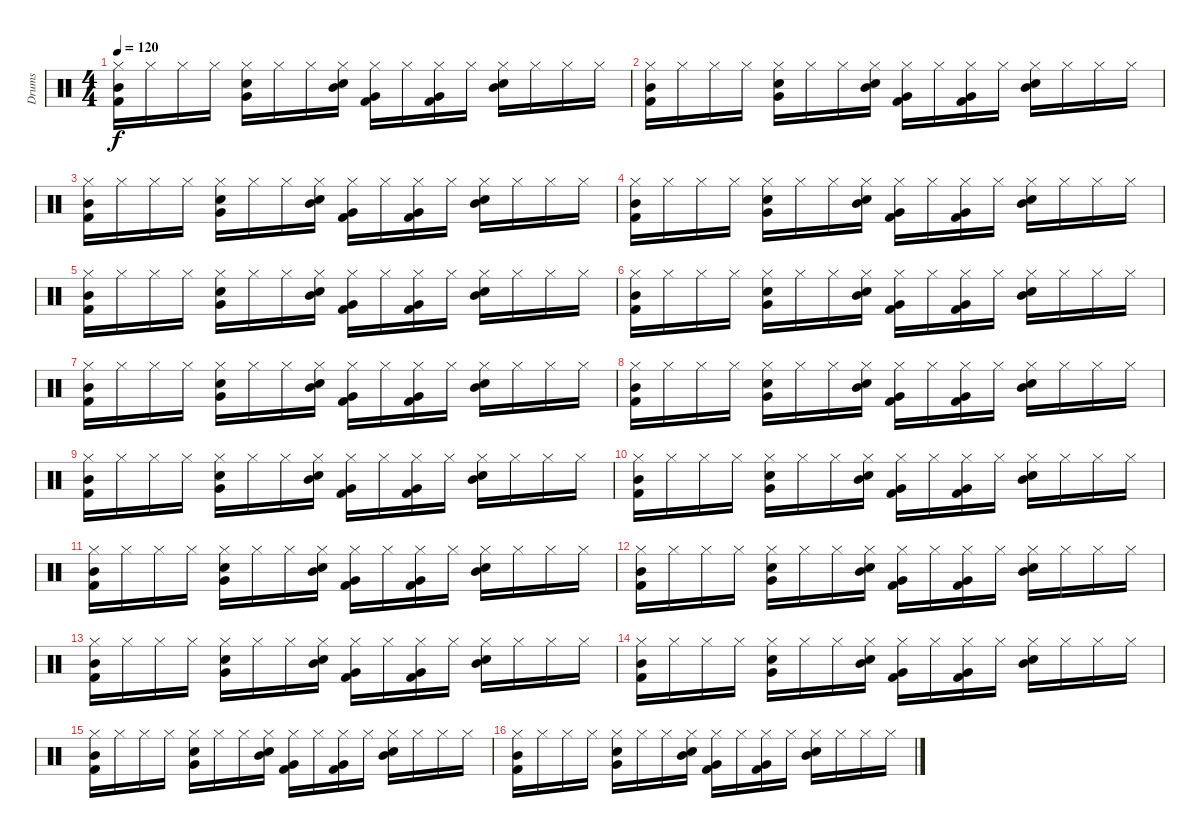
\track ("Drums" "Drums") {instrument percussion}
\staff {score}
\articulation defaults
\ts (4 4)
\tempo 120
\clef neutral
\ks c
("Hi-Hat (closed)" "Kick (hit) 2" "Mid Tom (hit)").16{dy f} "Hi-Hat (closed)".16 "Hi-Hat (closed)".16 "Hi-Hat (closed)".16 ("Hi-Hat (closed)" "Snare (hit) 2" "Very Low Tom (hit)").16 "Hi-Hat (closed)".16 "Hi-Hat (closed)".16 ("Hi-Hat (closed)" "Snare (hit) 2" "Mid Tom (hit)").16 ("Hi-Hat (closed)" "Kick (hit) 2" "Very Low Tom (hit)").16 "Hi-Hat (closed)".16 ("Hi-Hat (closed)" "Kick (hit) 2" "Very Low Tom (hit)").16 "Hi-Hat (closed)".16 ("Hi-Hat (closed)" "Snare (hit) 2" "Mid Tom (hit)").16 "Hi-Hat (closed)".16 "Hi-Hat (closed)".16 "Hi-Hat (closed)".16 |
("Hi-Hat (closed)" "Kick (hit) 2" "Mid Tom (hit)").16 "Hi-Hat (closed)".16 "Hi-Hat (closed)".16 "Hi-Hat (closed)".16 ("Hi-Hat (closed)" "Snare (hit) 2" "Very Low Tom (hit)").16 "Hi-Hat (closed)".16 "Hi-Hat (closed)".16 ("Hi-Hat (closed)" "Snare (hit) 2" "Mid Tom (hit)").16 ("Hi-Hat (closed)" "Kick (hit) 2" "Very Low Tom (hit)").16 "Hi-Hat (closed)".16 ("Hi-Hat (closed)" "Kick (hit) 2" "Very Low Tom (hit)").16 "Hi-Hat (closed)".16 ("Hi-Hat (closed)" "Snare (hit) 2" "Mid Tom (hit)").16 "Hi-Hat (closed)".16 "Hi-Hat (closed)".16 "Hi-Hat (closed)".16 |
("Hi-Hat (closed)" "Kick (hit) 2" "Mid Tom (hit)").16 "Hi-Hat (closed)".16 "Hi-Hat (closed)".16 "Hi-Hat (closed)".16 ("Hi-Hat (closed)" "Snare (hit) 2" "Very Low Tom (hit)").16 "Hi-Hat (closed)".16 "Hi-Hat (closed)".16 ("Hi-Hat (closed)" "Snare (hit) 2" "Mid Tom (hit)").16 ("Hi-Hat (closed)" "Kick (hit) 2" "Very Low Tom (hit)").16 "Hi-Hat (closed)".16 ("Hi-Hat (closed)" "Kick (hit) 2" "Very Low Tom (hit)").16 "Hi-Hat (closed)".16 ("Hi-Hat (closed)" "Snare (hit) 2" "Mid Tom (hit)").16 "Hi-Hat (closed)".16 "Hi-Hat (closed)".16 "Hi-Hat (closed)".16 |
("Hi-Hat (closed)" "Kick (hit) 2" "Mid Tom (hit)").16 "Hi-Hat (closed)".16 "Hi-Hat (closed)".16 "Hi-Hat (closed)".16 ("Hi-Hat (closed)" "Snare (hit) 2" "Very Low Tom (hit)").16 "Hi-Hat (closed)".16 "Hi-Hat (closed)".16 ("Hi-Hat (closed)" "Snare (hit) 2" "Mid Tom (hit)").16 ("Hi-Hat (closed)" "Kick (hit) 2" "Very Low Tom (hit)").16 "Hi-Hat (closed)".16 ("Hi-Hat (closed)" "Kick (hit) 2" "Very Low Tom (hit)").16 "Hi-Hat (closed)".16 ("Hi-Hat (closed)" "Snare (hit) 2" "Mid Tom (hit)").16 "Hi-Hat (closed)".16 "Hi-Hat (closed)".16 "Hi-Hat (closed)".16 |
("Hi-Hat (closed)" "Kick (hit) 2" "Mid Tom (hit)").16 "Hi-Hat (closed)".16 "Hi-Hat (closed)".16 "Hi-Hat (closed)".16 ("Hi-Hat (closed)" "Snare (hit) 2" "Very Low Tom (hit)").16 "Hi-Hat (closed)".16 "Hi-Hat (closed)".16 ("Hi-Hat (closed)" "Snare (hit) 2" "Mid Tom (hit)").16 ("Hi-Hat (closed)" "Kick (hit) 2" "Very Low Tom (hit)").16 "Hi-Hat (closed)".16 ("Hi-Hat (closed)" "Kick (hit) 2" "Very Low Tom (hit)").16 "Hi-Hat (closed)".16 ("Hi-Hat (closed)" "Snare (hit) 2" "Mid Tom (hit)").16 "Hi-Hat (closed)".16 "Hi-Hat (closed)".16 "Hi-Hat (closed)".16 |
("Hi-Hat (closed)" "Kick (hit) 2" "Mid Tom (hit)").16 "Hi-Hat (closed)".16 "Hi-Hat (closed)".16 "Hi-Hat (closed)".16 ("Hi-Hat (closed)" "Snare (hit) 2" "Very Low Tom (hit)").16 "Hi-Hat (closed)".16 "Hi-Hat (closed)".16 ("Hi-Hat (closed)" "Snare (hit) 2" "Mid Tom (hit)").16 ("Hi-Hat (closed)" "Kick (hit) 2" "Very Low Tom (hit)").16 "Hi-Hat (closed)".16 ("Hi-Hat (closed)" "Kick (hit) 2" "Very Low Tom (hit)").16 "Hi-Hat (closed)".16 ("Hi-Hat (closed)" "Snare (hit) 2" "Mid Tom (hit)").16 "Hi-Hat (closed)".16 "Hi-Hat (closed)".16 "Hi-Hat (closed)".16 |
("Hi-Hat (closed)" "Kick (hit) 2" "Mid Tom (hit)").16 "Hi-Hat (closed)".16 "Hi-Hat (closed)".16 "Hi-Hat (closed)".16 ("Hi-Hat (closed)" "Snare (hit) 2" "Very Low Tom (hit)").16 "Hi-Hat (closed)".16 "Hi-Hat (closed)".16 ("Hi-Hat (closed)" "Snare (hit) 2" "Mid Tom (hit)").16 ("Hi-Hat (closed)" "Kick (hit) 2" "Very Low Tom (hit)").16 "Hi-Hat (closed)".16 ("Hi-Hat (closed)" "Kick (hit) 2" "Very Low Tom (hit)").16 "Hi-Hat (closed)".16 ("Hi-Hat (closed)" "Snare (hit) 2" "Mid Tom (hit)").16 "Hi-Hat (closed)".16 "Hi-Hat (closed)".16 "Hi-Hat (closed)".16 |
("Hi-Hat (closed)" "Kick (hit) 2" "Mid Tom (hit)").16 "Hi-Hat (closed)".16 "Hi-Hat (closed)".16 "Hi-Hat (closed)".16 ("Hi-Hat (closed)" "Snare (hit) 2" "Very Low Tom (hit)").16 "Hi-Hat (closed)".16 "Hi-Hat (closed)".16 ("Hi-Hat (closed)" "Snare (hit) 2" "Mid Tom (hit)").16 ("Hi-Hat (closed)" "Kick (hit) 2" "Very Low Tom (hit)").16 "Hi-Hat (closed)".16 ("Hi-Hat (closed)" "Kick (hit) 2" "Very Low Tom (hit)").16 "Hi-Hat (closed)".16 ("Hi-Hat (closed)" "Snare (hit) 2" "Mid Tom (hit)").16 "Hi-Hat (closed)".16 "Hi-Hat (closed)".16 "Hi-Hat (closed)".16 |
("Hi-Hat (closed)" "Kick (hit) 2" "Mid Tom (hit)").16 "Hi-Hat (closed)".16 "Hi-Hat (closed)".16 "Hi-Hat (closed)".16 ("Hi-Hat (closed)" "Snare (hit) 2" "Very Low Tom (hit)").16 "Hi-Hat (closed)".16 "Hi-Hat (closed)".16 ("Hi-Hat (closed)" "Snare (hit) 2" "Mid Tom (hit)").16 ("Hi-Hat (closed)" "Kick (hit) 2" "Very Low Tom (hit)").16 "Hi-Hat (closed)".16 ("Hi-Hat (closed)" "Kick (hit) 2" "Very Low Tom (hit)").16 "Hi-Hat (closed)".16 ("Hi-Hat (closed)" "Snare (hit) 2" "Mid Tom (hit)").16 "Hi-Hat (closed)".16 "Hi-Hat (closed)".16 "Hi-Hat (closed)".16 |
("Hi-Hat (closed)" "Kick (hit) 2" "Mid Tom (hit)").16 "Hi-Hat (closed)".16 "Hi-Hat (closed)".16 "Hi-Hat (closed)".16 ("Hi-Hat (closed)" "Snare (hit) 2" "Very Low Tom (hit)").16 "Hi-Hat (closed)".16 "Hi-Hat (closed)".16 ("Hi-Hat (closed)" "Snare (hit) 2" "Mid Tom (hit)").16 ("Hi-Hat (closed)" "Kick (hit) 2" "Very Low Tom (hit)").16 "Hi-Hat (closed)".16 ("Hi-Hat (closed)" "Kick (hit) 2" "Very Low Tom (hit)").16 "Hi-Hat (closed)".16 ("Hi-Hat (closed)" "Snare (hit) 2" "Mid Tom (hit)").16 "Hi-Hat (closed)".16 "Hi-Hat (closed)".16 "Hi-Hat (closed)".16 |
("Hi-Hat (closed)" "Kick (hit) 2" "Mid Tom (hit)").16 "Hi-Hat (closed)".16 "Hi-Hat (closed)".16 "Hi-Hat (closed)".16 ("Hi-Hat (closed)" "Snare (hit) 2" "Very Low Tom (hit)").16 "Hi-Hat (closed)".16 "Hi-Hat (closed)".16 ("Hi-Hat (closed)" "Snare (hit) 2" "Mid Tom (hit)").16 ("Hi-Hat (closed)" "Kick (hit) 2" "Very Low Tom (hit)").16 "Hi-Hat (closed)".16 ("Hi-Hat (closed)" "Kick (hit) 2" "Very Low Tom (hit)").16 "Hi-Hat (closed)".16 ("Hi-Hat (closed)" "Snare (hit) 2" "Mid Tom (hit)").16 "Hi-Hat (closed)".16 "Hi-Hat (closed)".16 "Hi-Hat (closed)".16 |
("Hi-Hat (closed)" "Kick (hit) 2" "Mid Tom (hit)").16 "Hi-Hat (closed)".16 "Hi-Hat (closed)".16 "Hi-Hat (closed)".16 ("Hi-Hat (closed)" "Snare (hit) 2" "Very Low Tom (hit)").16 "Hi-Hat (closed)".16 "Hi-Hat (closed)".16 ("Hi-Hat (closed)" "Snare (hit) 2" "Mid Tom (hit)").16 ("Hi-Hat (closed)" "Kick (hit) 2" "Very Low Tom (hit)").16 "Hi-Hat (closed)".16 ("Hi-Hat (closed)" "Kick (hit) 2" "Very Low Tom (hit)").16 "Hi-Hat (closed)".16 ("Hi-Hat (closed)" "Snare (hit) 2" "Mid Tom (hit)").16 "Hi-Hat (closed)".16 "Hi-Hat (closed)".16 "Hi-Hat (closed)".16 |
("Hi-Hat (closed)" "Kick (hit) 2" "Mid Tom (hit)").16 "Hi-Hat (closed)".16 "Hi-Hat (closed)".16 "Hi-Hat (closed)".16 ("Hi-Hat (closed)" "Snare (hit) 2" "Very Low Tom (hit)").16 "Hi-Hat (closed)".16 "Hi-Hat (closed)".16 ("Hi-Hat (closed)" "Snare (hit) 2" "Mid Tom (hit)").16 ("Hi-Hat (closed)" "Kick (hit) 2" "Very Low Tom (hit)").16 "Hi-Hat (closed)".16 ("Hi-Hat (closed)" "Kick (hit) 2" "Very Low Tom (hit)").16 "Hi-Hat (closed)".16 ("Hi-Hat (closed)" "Snare (hit) 2" "Mid Tom (hit)").16 "Hi-Hat (closed)".16 "Hi-Hat (closed)".16 "Hi-Hat (closed)".16 |
("Hi-Hat (closed)" "Kick (hit) 2" "Mid Tom (hit)").16 "Hi-Hat (closed)".16 "Hi-Hat (closed)".16 "Hi-Hat (closed)".16 ("Hi-Hat (closed)" "Snare (hit) 2" "Very Low Tom (hit)").16 "Hi-Hat (closed)".16 "Hi-Hat (closed)".16 ("Hi-Hat (closed)" "Snare (hit) 2" "Mid Tom (hit)").16 ("Hi-Hat (closed)" "Kick (hit) 2" "Very Low Tom (hit)").16 "Hi-Hat (closed)".16 ("Hi-Hat (closed)" "Kick (hit) 2" "Very Low Tom (hit)").16 "Hi-Hat (closed)".16 ("Hi-Hat (closed)" "Snare (hit) 2" "Mid Tom (hit)").16 "Hi-Hat (closed)".16 "Hi-Hat (closed)".16 "Hi-Hat (closed)".16 |
("Hi-Hat (closed)" "Kick (hit) 2" "Mid Tom (hit)").16 "Hi-Hat (closed)".16 "Hi-Hat (closed)".16 "Hi-Hat (closed)".16 ("Hi-Hat (closed)" "Snare (hit) 2" "Very Low Tom (hit)").16 "Hi-Hat (closed)".16 "Hi-Hat (closed)".16 ("Hi-Hat (closed)" "Snare (hit) 2" "Mid Tom (hit)").16 ("Hi-Hat (closed)" "Kick (hit) 2" "Very Low Tom (hit)").16 "Hi-Hat (closed)".16 ("Hi-Hat (closed)" "Kick (hit) 2" "Very Low Tom (hit)").16 "Hi-Hat (closed)".16 ("Hi-Hat (closed)" "Snare (hit) 2" "Mid Tom (hit)").16 "Hi-Hat (closed)".16 "Hi-Hat (closed)".16 "Hi-Hat (closed)".16 |
("Hi-Hat (closed)" "Kick (hit) 2" "Mid Tom (hit)").16 "Hi-Hat (closed)".16 "Hi-Hat (closed)".16 "Hi-Hat (closed)".16 ("Hi-Hat (closed)" "Snare (hit) 2" "Very Low Tom (hit)").16 "Hi-Hat (closed)".16 "Hi-Hat (closed)".16 ("Hi-Hat (closed)" "Snare (hit) 2" "Mid Tom (hit)").16 ("Hi-Hat (closed)" "Kick (hit) 2" "Very Low Tom (hit)").16 "Hi-Hat (closed)".16 ("Hi-Hat (closed)" "Kick (hit) 2" "Very Low Tom (hit)").16 "Hi-Hat (closed)".16 ("Hi-Hat (closed)" "Snare (hit) 2" "Mid Tom (hit)").16 "Hi-Hat (closed)".16 "Hi-Hat (closed)".16 "Hi-Hat (closed)".16
